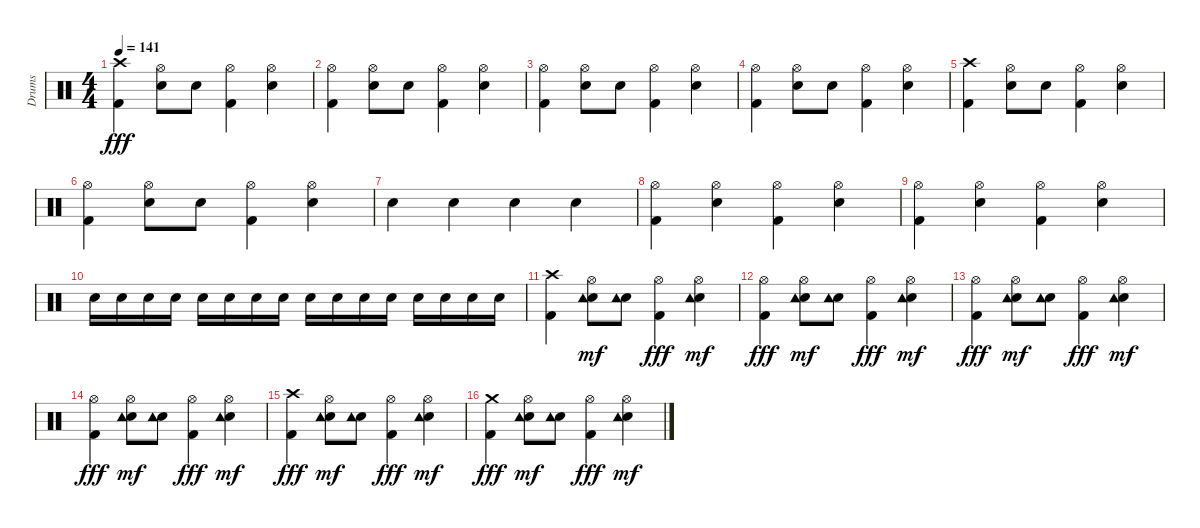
\track ("Drums" "Drums") {instrument percussion}
\staff {score}
\articulation defaults
\ts (4 4)
\tempo 141
\clef neutral
\ks c
("Crash high (hit)" "Kick (hit) 2").4{dy fff} ("Hi-Hat (open)" "Electric Snare (hit)").8 "Electric Snare (hit)".8 ("Hi-Hat (open)" "Kick (hit) 2").4 ("Hi-Hat (open)" "Electric Snare (hit)").4 |
("Hi-Hat (open)" "Kick (hit) 2").4 ("Hi-Hat (open)" "Electric Snare (hit)").8 "Electric Snare (hit)".8 ("Hi-Hat (open)" "Kick (hit) 2").4 ("Hi-Hat (open)" "Electric Snare (hit)").4 |
("Hi-Hat (open)" "Kick (hit) 2").4 ("Hi-Hat (open)" "Electric Snare (hit)").8 "Electric Snare (hit)".8 ("Hi-Hat (open)" "Kick (hit) 2").4 ("Hi-Hat (open)" "Electric Snare (hit)").4 |
("Hi-Hat (open)" "Kick (hit) 2").4 ("Hi-Hat (open)" "Electric Snare (hit)").8 "Electric Snare (hit)".8 ("Hi-Hat (open)" "Kick (hit) 2").4 ("Hi-Hat (open)" "Electric Snare (hit)").4 |
("Crash high (hit)" "Kick (hit) 2").4 ("Hi-Hat (open)" "Electric Snare (hit)").8 "Electric Snare (hit)".8 ("Hi-Hat (open)" "Kick (hit) 2").4 ("Hi-Hat (open)" "Electric Snare (hit)").4 |
("Hi-Hat (open)" "Kick (hit) 2").4 ("Hi-Hat (open)" "Electric Snare (hit)").8 "Electric Snare (hit)".8 ("Hi-Hat (open)" "Kick (hit) 2").4 ("Hi-Hat (open)" "Electric Snare (hit)").4 |
"Electric Snare (hit)".4 "Electric Snare (hit)".4 "Electric Snare (hit)".4 "Electric Snare (hit)".4 |
("Hi-Hat (open)" "Kick (hit) 2").4 ("Hi-Hat (open)" "Electric Snare (hit)").4 ("Hi-Hat (open)" "Kick (hit) 2").4 ("Hi-Hat (open)" "Electric Snare (hit)").4 |
("Hi-Hat (open)" "Kick (hit) 2").4 ("Hi-Hat (open)" "Electric Snare (hit)").4 ("Hi-Hat (open)" "Kick (hit) 2").4 ("Hi-Hat (open)" "Electric Snare (hit)").4 |
"Electric Snare (hit)".16 "Electric Snare (hit)".16 "Electric Snare (hit)".16 "Electric Snare (hit)".16 "Electric Snare (hit)".16 "Electric Snare (hit)".16 "Electric Snare (hit)".16 "Electric Snare (hit)".16 "Electric Snare (hit)".16 "Electric Snare (hit)".16 "Electric Snare (hit)".16 "Electric Snare (hit)".16 "Electric Snare (hit)".16 "Electric Snare (hit)".16 "Electric Snare (hit)".16 "Electric Snare (hit)".16 |
("Crash high (hit)" "Kick (hit) 2").4 ("Hi-Hat (open)" "Electric Snare (hit)" "Tambourine (hit)").8{dy mf} ("Electric Snare (hit)" "Tambourine (hit)").8 ("Hi-Hat (open)" "Kick (hit) 2").4{dy fff} ("Hi-Hat (open)" "Electric Snare (hit)" "Tambourine (hit)").4{dy mf} |
("Hi-Hat (open)" "Kick (hit) 2").4{dy fff} ("Hi-Hat (open)" "Electric Snare (hit)" "Tambourine (hit)").8{dy mf} ("Electric Snare (hit)" "Tambourine (hit)").8 ("Hi-Hat (open)" "Kick (hit) 2").4{dy fff} ("Hi-Hat (open)" "Electric Snare (hit)" "Tambourine (hit)").4{dy mf} |
("Hi-Hat (open)" "Kick (hit) 2").4{dy fff} ("Hi-Hat (open)" "Electric Snare (hit)" "Tambourine (hit)").8{dy mf} ("Electric Snare (hit)" "Tambourine (hit)").8 ("Hi-Hat (open)" "Kick (hit) 2").4{dy fff} ("Hi-Hat (open)" "Electric Snare (hit)" "Tambourine (hit)").4{dy mf} |
("Hi-Hat (open)" "Kick (hit) 2").4{dy fff} ("Hi-Hat (open)" "Electric Snare (hit)" "Tambourine (hit)").8{dy mf} ("Electric Snare (hit)" "Tambourine (hit)").8 ("Hi-Hat (open)" "Kick (hit) 2").4{dy fff} ("Hi-Hat (open)" "Electric Snare (hit)" "Tambourine (hit)").4{dy mf} |
("Crash high (hit)" "Kick (hit) 2").4{dy fff} ("Hi-Hat (open)" "Electric Snare (hit)" "Tambourine (hit)").8{dy mf} ("Electric Snare (hit)" "Tambourine (hit)").8 ("Hi-Hat (open)" "Kick (hit) 2").4{dy fff} ("Hi-Hat (open)" "Electric Snare (hit)" "Tambourine (hit)").4{dy mf} |
("Crash medium (hit)" "Kick (hit) 2").4{dy fff} ("Hi-Hat (open)" "Electric Snare (hit)" "Tambourine (hit)").8{dy mf} ("Electric Snare (hit)" "Tambourine (hit)").8 ("Hi-Hat (open)" "Kick (hit) 2").4{dy fff} ("Hi-Hat (open)" "Electric Snare (hit)" "Tambourine (hit)").4{dy mf}
